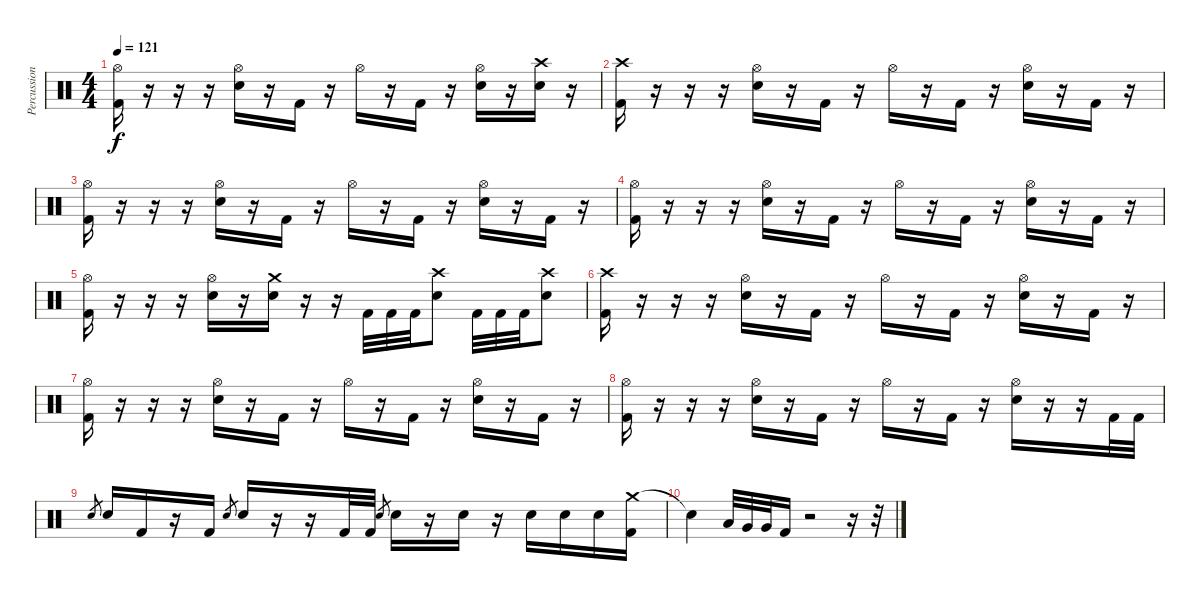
\track ("Percussion" "Percussion") {instrument percussion}
\staff {score}
\articulation defaults
\ts (4 4)
\tempo 121
\clef neutral
\ks c
("Hi-Hat (open)" "Kick (hit) 2").16{dy f} r.16 r.16 r.16 ("Hi-Hat (open)" "Electric Snare (hit)").16 r.16 "Kick (hit) 2".16 r.16 "Hi-Hat (open)".16 r.16 "Kick (hit) 2".16 r.16 ("Hi-Hat (open)" "Electric Snare (hit)").16 r.16 ("Crash high (hit)" "Electric Snare (hit)").16 r.16 |
("Crash high (hit)" "Kick (hit) 2").16 r.16 r.16 r.16 ("Hi-Hat (open)" "Electric Snare (hit)").16 r.16 "Kick (hit) 2".16 r.16 "Hi-Hat (open)".16 r.16 "Kick (hit) 2".16 r.16 ("Hi-Hat (open)" "Electric Snare (hit)").16 r.16 "Kick (hit) 2".16 r.16 |
("Hi-Hat (open)" "Kick (hit) 2").16 r.16 r.16 r.16 ("Hi-Hat (open)" "Electric Snare (hit)").16 r.16 "Kick (hit) 2".16 r.16 "Hi-Hat (open)".16 r.16 "Kick (hit) 2".16 r.16 ("Hi-Hat (open)" "Electric Snare (hit)").16 r.16 "Kick (hit) 2".16 r.16 |
("Hi-Hat (open)" "Kick (hit) 2").16 r.16 r.16 r.16 ("Hi-Hat (open)" "Electric Snare (hit)").16 r.16 "Kick (hit) 2".16 r.16 "Hi-Hat (open)".16 r.16 "Kick (hit) 2".16 r.16 ("Hi-Hat (open)" "Electric Snare (hit)").16 r.16 "Kick (hit) 2".16 r.16 |
("Hi-Hat (open)" "Kick (hit) 2").16 r.16 r.16 r.16 ("Hi-Hat (open)" "Electric Snare (hit)").16 r.16 ("Crash medium (hit)" "Electric Snare (hit)").16 r.16 r.16 "Kick (hit) 2".32 "Kick (hit) 2".32 "Kick (hit) 2".32 ("Crash high (hit)" "Electric Snare (hit)").8 "Kick (hit) 2".32 "Kick (hit) 2".32 "Kick (hit) 2".32 ("Crash high (hit)" "Electric Snare (hit)").8 |
("Crash high (hit)" "Kick (hit) 2").16 r.16 r.16 r.16 ("Hi-Hat (open)" "Electric Snare (hit)").16 r.16 "Kick (hit) 2".16 r.16 "Hi-Hat (open)".16 r.16 "Kick (hit) 2".16 r.16 ("Hi-Hat (open)" "Electric Snare (hit)").16 r.16 "Kick (hit) 2".16 r.16 |
("Hi-Hat (open)" "Kick (hit) 2").16 r.16 r.16 r.16 ("Hi-Hat (open)" "Electric Snare (hit)").16 r.16 "Kick (hit) 2".16 r.16 "Hi-Hat (open)".16 r.16 "Kick (hit) 2".16 r.16 ("Hi-Hat (open)" "Electric Snare (hit)").16 r.16 "Kick (hit) 2".16 r.16 |
("Hi-Hat (open)" "Kick (hit) 2").16 r.16 r.16 r.16 ("Hi-Hat (open)" "Electric Snare (hit)").16 r.16 "Kick (hit) 2".16 r.16 "Hi-Hat (open)".16 r.16 "Kick (hit) 2".16 r.16 ("Hi-Hat (open)" "Electric Snare (hit)").16 r.16 r.16 "Kick (hit) 2".32 "Kick (hit) 2".32 |
"Electric Snare (hit)".8{gr} "Electric Snare (hit)".16 "Kick (hit) 2".16 r.16 "Kick (hit) 2".16 "Electric Snare (hit)".8{gr} "Electric Snare (hit)".16 r.16 r.16 "Kick (hit) 2".32 "Kick (hit) 2".32 "Electric Snare (hit)".8{gr} "Electric Snare (hit)".16 r.16 "Electric Snare (hit)".16 r.16 "Electric Snare (hit)".16 "Electric Snare (hit)".16 "Electric Snare (hit)".16 ("Crash medium (hit)" "Kick (hit) 2").16 |
"Snare (hit)"{t}.4 "Low Tom (hit)".32 "Very Low Tom (hit)".32 "Very Low Tom (hit)".32 "Kick (hit) 2".16 r.2 r.16 r.32
